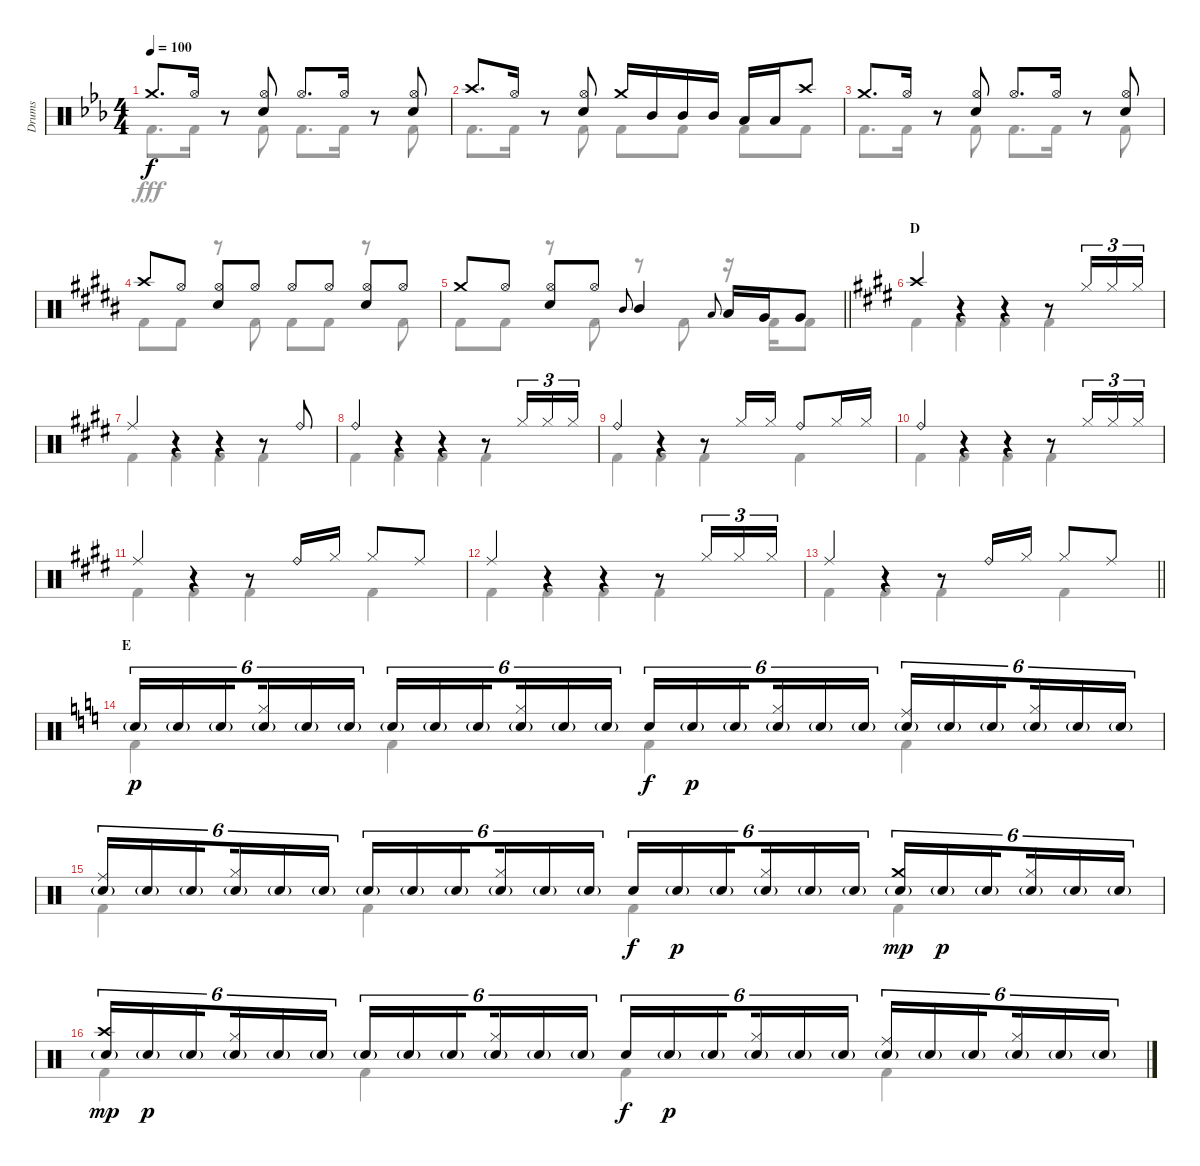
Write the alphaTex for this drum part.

\track ("Drums" "Drums") {instrument percussion}
\staff {score}
\articulation defaults
\voice
\ts (4 4)
\tempo 100
\clef neutral
\ks eb "Crash medium (hit)".8{d dy f} "Hi-Hat (open)".16
r.8 ("Hi-Hat (open)" "Snare (hit) 2").8 "Hi-Hat (open)".8{d} "Hi-Hat (open)".16 r.8 ("Hi-Hat (open)" "Snare (hit) 2").8 |
"Crash high (hit)".8{d} "Hi-Hat (open)".16 r.8 ("Hi-Hat (open)" "Snare (hit) 2").8 "Crash medium (hit)".16 "Mid Tom (hit)".16 "Mid Tom (hit)".16 "Mid Tom (hit)".16 "Low Tom (hit)".16 "Low Tom (hit)".16 "Crash high (hit)".8 |
"Crash medium (hit)".8{d} "Hi-Hat (open)".16 r.8 ("Hi-Hat (open)" "Snare (hit) 2").8 "Hi-Hat (open)".8{d} "Hi-Hat (open)".16 r.8 ("Hi-Hat (open)" "Snare (hit) 2").8 |
\ks b "Crash high (hit)".8 "Hi-Hat (open)".8
("Hi-Hat (open)" "Snare (hit) 2").8 "Hi-Hat (open)".8 "Hi-Hat (open)".8 "Hi-Hat (open)".8 ("Hi-Hat (open)" "Snare (hit) 2").8 "Hi-Hat (open)".8 |
\barLineRight lightlight "Crash medium (hit)".8 "Hi-Hat (open)".8
("Hi-Hat (open)" "Snare (hit) 2").8 "Hi-Hat (open)".8 "Mid Tom (hit)".8{gr onbeat} "Mid Tom (hit)".4 "Low Tom (hit)".8{gr onbeat} "Low Tom (hit)".16 "Very Low Tom (hit)".16 "Very Low Tom (hit)".8 |
\section ("" "D")
\ks e "Crash high (hit)".4
r.4 r.4 r.8 "Hi-Hat (closed)".16{tu (3 2)} "Hi-Hat (closed)".16{tu (3 2)} "Hi-Hat (closed)".16{tu (3 2)} |
"Ride (middle)".4 r.4 r.4 r.8 "Ride (bell)".8 |
"Ride (bell)".4 r.4 r.4 r.8 "Hi-Hat (closed)".16{tu (3 2)} "Hi-Hat (closed)".16{tu (3 2)} "Hi-Hat (closed)".16{tu (3 2)} |
"Ride (bell)".4 r.4 r.8 "Hi-Hat (closed)".16 "Hi-Hat (closed)".16 "Ride (bell)".8 "Hi-Hat (closed)".16 "Hi-Hat (closed)".16 |
"Ride (bell)".4 r.4 r.4 r.8 "Hi-Hat (closed)".16{tu (3 2)} "Hi-Hat (closed)".16{tu (3 2)} "Hi-Hat (closed)".16{tu (3 2)} |
"Ride (middle)".4 r.4 r.8 "Ride (bell)".16 "Hi-Hat (closed)".16 "Hi-Hat (closed)".8 "Ride (middle)".8 |
"Ride (middle)".4 r.4 r.4 r.8 "Hi-Hat (closed)".16{tu (3 2)} "Hi-Hat (closed)".16{tu (3 2)} "Hi-Hat (closed)".16{tu (3 2)} |
\barLineRight lightlight "Ride (middle)".4
r.4 r.8 "Ride (bell)".16 "Hi-Hat (closed)".16 "Hi-Hat (closed)".8 "Ride (middle)".8 |
\section ("" "E")
\ks c "Snare (hit) 2"{g}.16{tu (6 4) dy p} "Snare (hit) 2"{g}.16{tu (6 4)} "Snare (hit) 2"{g}.16{tu (6 4) beam splitsecondary}
("Snare (hit) 2"{g} "Hi-Hat (closed)").16{tu (6 4)} "Snare (hit) 2"{g}.16{tu (6 4)} "Snare (hit) 2"{g}.16{tu (6 4)} "Snare (hit) 2"{g}.16{tu (6 4)} "Snare (hit) 2"{g}.16{tu (6 4)} "Snare (hit) 2"{g}.16{tu (6 4) beam splitsecondary} ("Snare (hit) 2"{g} "Hi-Hat (closed)").16{tu (6 4)} "Snare (hit) 2"{g}.16{tu (6 4)} "Snare (hit) 2"{g}.16{tu (6 4)} "Snare (hit) 2".16{tu (6 4) dy f} "Snare (hit) 2"{g}.16{tu (6 4) dy p} "Snare (hit) 2"{g}.16{tu (6 4) beam splitsecondary} ("Snare (hit) 2"{g} "Hi-Hat (closed)").16{tu (6 4)} "Snare (hit) 2"{g}.16{tu (6 4)} "Snare (hit) 2"{g}.16{tu (6 4)} ("Snare (hit) 2"{g} "Ride (middle)").16{tu (6 4)} "Snare (hit) 2"{g}.16{tu (6 4)} "Snare (hit) 2"{g}.16{tu (6 4) beam splitsecondary} ("Snare (hit) 2"{g} "Hi-Hat (closed)").16{tu (6 4)} "Snare (hit) 2"{g}.16{tu (6 4)} "Snare (hit) 2"{g}.16{tu (6 4)} |
("Snare (hit) 2"{g} "Ride (middle)").16{tu (6 4)} "Snare (hit) 2"{g}.16{tu (6 4)} "Snare (hit) 2"{g}.16{tu (6 4) beam splitsecondary} ("Snare (hit) 2"{g} "Hi-Hat (closed)").16{tu (6 4)} "Snare (hit) 2"{g}.16{tu (6 4)} "Snare (hit) 2"{g}.16{tu (6 4)} "Snare (hit) 2"{g}.16{tu (6 4)} "Snare (hit) 2"{g}.16{tu (6 4)} "Snare (hit) 2"{g}.16{tu (6 4) beam splitsecondary} ("Snare (hit) 2"{g} "Hi-Hat (closed)").16{tu (6 4)} "Snare (hit) 2"{g}.16{tu (6 4)} "Snare (hit) 2"{g}.16{tu (6 4)} "Snare (hit) 2".16{tu (6 4) dy f} "Snare (hit) 2"{g}.16{tu (6 4) dy p} "Snare (hit) 2"{g}.16{tu (6 4) beam splitsecondary} ("Snare (hit) 2"{g} "Hi-Hat (closed)").16{tu (6 4)} "Snare (hit) 2"{g}.16{tu (6 4)} "Snare (hit) 2"{g}.16{tu (6 4)} ("Snare (hit) 2"{g} "Crash medium (hit)").16{tu (6 4) dy mp} "Snare (hit) 2"{g}.16{tu (6 4) dy p} "Snare (hit) 2"{g}.16{tu (6 4) beam splitsecondary} ("Snare (hit) 2"{g} "Hi-Hat (closed)").16{tu (6 4)} "Snare (hit) 2"{g}.16{tu (6 4)} "Snare (hit) 2"{g}.16{tu (6 4)} |
("Snare (hit) 2"{g} "Crash high (hit)").16{tu (6 4) dy mp} "Snare (hit) 2"{g}.16{tu (6 4) dy p} "Snare (hit) 2"{g}.16{tu (6 4) beam splitsecondary} ("Snare (hit) 2"{g} "Hi-Hat (closed)").16{tu (6 4)} "Snare (hit) 2"{g}.16{tu (6 4)} "Snare (hit) 2"{g}.16{tu (6 4)} "Snare (hit) 2"{g}.16{tu (6 4)} "Snare (hit) 2"{g}.16{tu (6 4)} "Snare (hit) 2"{g}.16{tu (6 4) beam splitsecondary} ("Snare (hit) 2"{g} "Hi-Hat (closed)").16{tu (6 4)} "Snare (hit) 2"{g}.16{tu (6 4)} "Snare (hit) 2"{g}.16{tu (6 4)} "Snare (hit) 2".16{tu (6 4) dy f} "Snare (hit) 2"{g}.16{tu (6 4) dy p} "Snare (hit) 2"{g}.16{tu (6 4) beam splitsecondary} ("Snare (hit) 2"{g} "Hi-Hat (closed)").16{tu (6 4)} "Snare (hit) 2"{g}.16{tu (6 4)} "Snare (hit) 2"{g}.16{tu (6 4)} ("Snare (hit) 2"{g} "Ride (middle)").16{tu (6 4)} "Snare (hit) 2"{g}.16{tu (6 4)} "Snare (hit) 2"{g}.16{tu (6 4) beam splitsecondary} ("Snare (hit) 2"{g} "Hi-Hat (closed)").16{tu (6 4)} "Snare (hit) 2"{g}.16{tu (6 4)} "Snare (hit) 2"{g}.16{tu (6 4)}
\voice
\clef neutral
\ottava regular
\simile none
\ks eb "Kick (hit) 2".8{d dy fff} "Kick (hit) 2".16
r.8 "Kick (hit) 2".8 "Kick (hit) 2".8{d} "Kick (hit) 2".16 r.8 "Kick (hit) 2".8 |
"Kick (hit) 2".8{d} "Kick (hit) 2".16 r.8 "Kick (hit) 2".8 "Kick (hit) 2".8 "Kick (hit) 2".8 "Kick (hit) 2".8 "Kick (hit) 2".8 |
"Kick (hit) 2".8{d} "Kick (hit) 2".16 r.8 "Kick (hit) 2".8 "Kick (hit) 2".8{d} "Kick (hit) 2".16 r.8 "Kick (hit) 2".8 |
\ks b "Kick (hit) 2".8 "Kick (hit) 2".8
r.8 "Kick (hit) 2".8 "Kick (hit) 2".8 "Kick (hit) 2".8 r.8 "Kick (hit) 2".8 |
\barLineRight lightlight "Kick (hit) 2".8 "Kick (hit) 2".8
r.8 "Kick (hit) 2".8 r.8 "Kick (hit) 2".8 r.16 "Kick (hit) 2".16 "Kick (hit) 2".8 |
\ks e "Kick (hit) 2".4 "Kick (hit) 2".4 "Kick (hit) 2".4 "Kick (hit) 2".4
|
"Kick (hit) 2".4 "Kick (hit) 2".4 "Kick (hit) 2".4 "Kick (hit) 2".4 |
"Kick (hit) 2".4 "Kick (hit) 2".4 "Kick (hit) 2".4 "Kick (hit) 2".4 |
"Kick (hit) 2".4 "Kick (hit) 2".4 "Kick (hit) 2".4 "Kick (hit) 2".4 |
"Kick (hit) 2".4 "Kick (hit) 2".4 "Kick (hit) 2".4 "Kick (hit) 2".4 |
"Kick (hit) 2".4 "Kick (hit) 2".4 "Kick (hit) 2".4 "Kick (hit) 2".4 |
"Kick (hit) 2".4 "Kick (hit) 2".4 "Kick (hit) 2".4 "Kick (hit) 2".4 |
\barLineRight lightlight "Kick (hit) 2".4 "Kick (hit) 2".4 "Kick (hit) 2".4 "Kick (hit) 2".4
|
\ks c "Kick (hit) 2".4 "Kick (hit) 2".4 "Kick (hit) 2".4 "Kick (hit) 2".4
|
"Kick (hit) 2".4 "Kick (hit) 2".4 "Kick (hit) 2".4 "Kick (hit) 2".4 |
"Kick (hit) 2".4 "Kick (hit) 2".4 "Kick (hit) 2".4 "Kick (hit) 2".4
